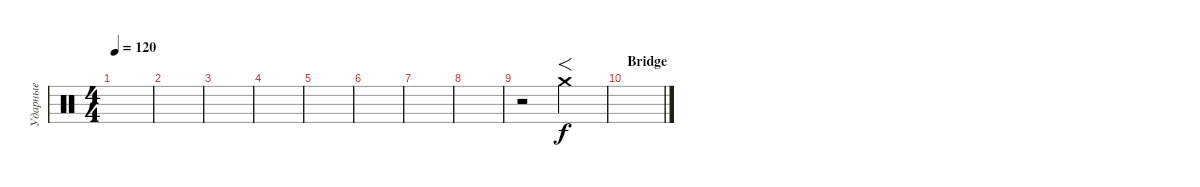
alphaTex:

\track ("Ударные" "Ударные") {instrument percussion}
\staff {score}
\articulation defaults
\ts (4 4)
\tempo 120
\clef neutral
\ks c
|
|
|
|
|
|
|
|
r.2 "Crash medium (hit)".2{f} |
\section ("" "Bridge")
